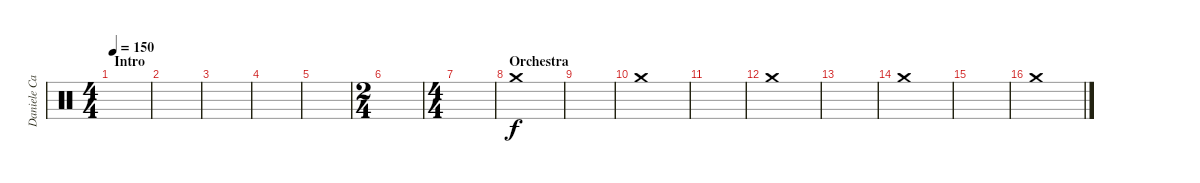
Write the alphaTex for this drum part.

\track ("Daniele Carbonera" "Daniele Ca") {instrument percussion}
\staff {score}
\articulation defaults
\ts (4 4)
\section ("" "Intro")
\tempo 150
\clef neutral
\ks c
|
|
|
|
|
\ts (2 4)
|
\ts (4 4)
|
\section ("" "Orchestra")
"Crash medium (hit)".1 |
|
"Crash medium (hit)".1 |
|
"Crash medium (hit)".1 |
|
"Crash medium (hit)".1 |
|
"Crash medium (hit)".1
